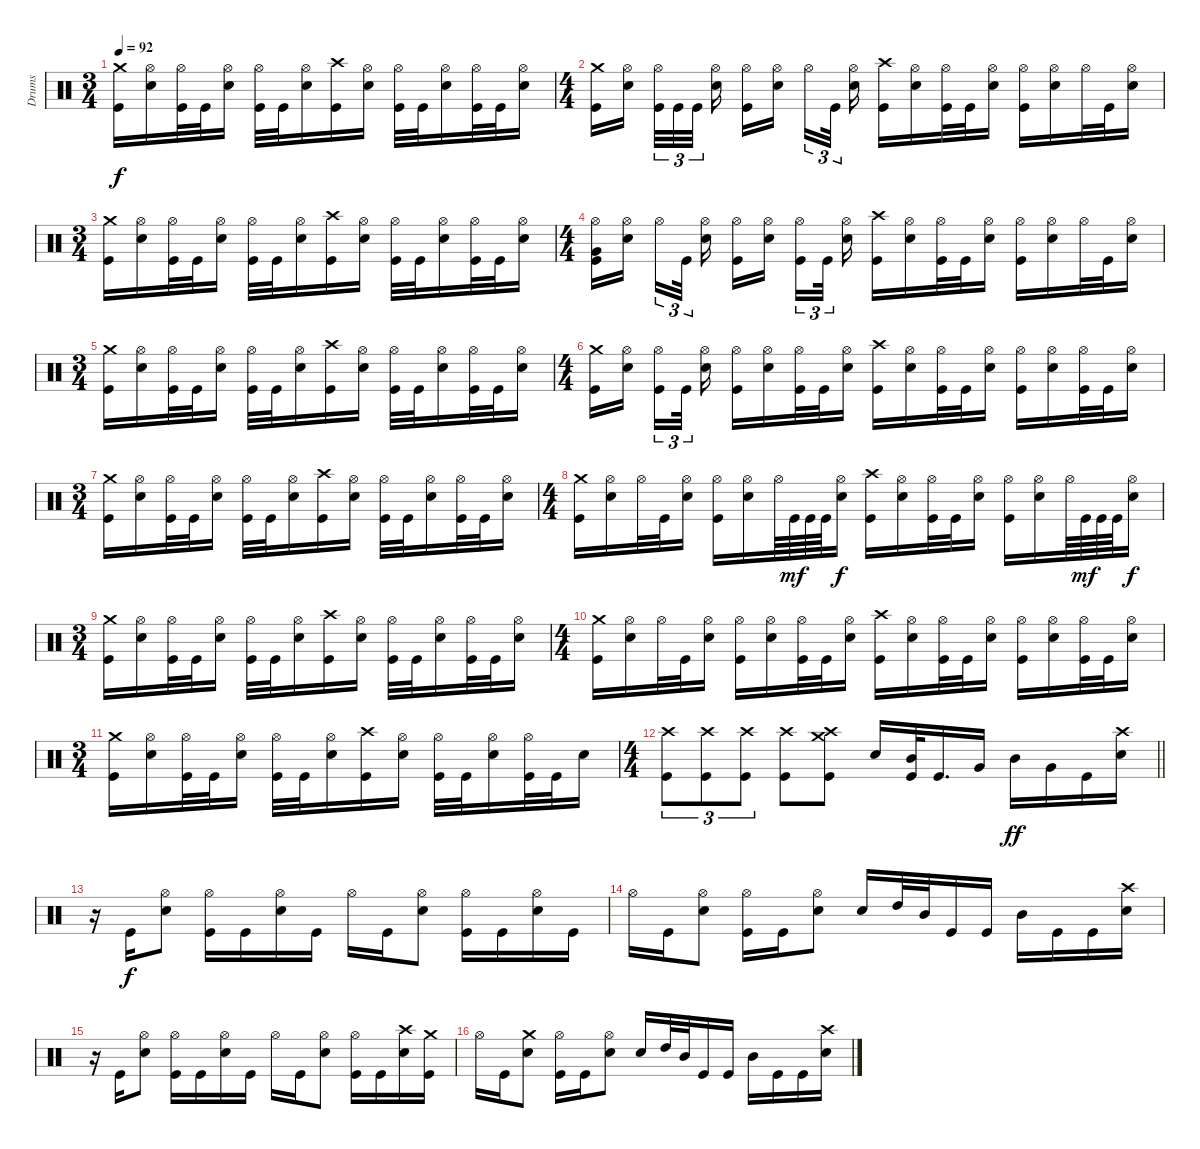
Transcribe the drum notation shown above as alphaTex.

\track ("Drums" "Drums") {instrument percussion}
\staff {score}
\articulation defaults
\ts (3 4)
\beaming (8 2 2 2)
\tempo 92
\clef neutral
\ks c
("Crash medium (hit)" "Kick (hit)").16{dy f} ("Hi-Hat (open)" "Snare (hit) 2").16 ("Hi-Hat (open)" "Kick (hit)").32 "Kick (hit)".32 ("Hi-Hat (open)" "Snare (hit) 2").16 ("Hi-Hat (open)" "Kick (hit)").32 "Kick (hit)".32 ("Hi-Hat (open)" "Snare (hit) 2").16 ("Crash high (hit)" "Kick (hit)").16 ("Hi-Hat (open)" "Snare (hit) 2").16 ("Hi-Hat (open)" "Kick (hit)").32 "Kick (hit)".32 ("Hi-Hat (open)" "Snare (hit) 2").16 ("Hi-Hat (open)" "Kick (hit)").32 "Kick (hit)".32 ("Hi-Hat (open)" "Snare (hit) 2").16 |
\ts (4 4)
\beaming (8 2 2 2 2)
("Crash medium (hit)" "Kick (hit)").16 ("Hi-Hat (open)" "Snare (hit) 2").16 ("Hi-Hat (open)" "Kick (hit)").32{tu (3 2)} "Kick (hit)".32{tu (3 2)} "Kick (hit)".32{tu (3 2)} ("Hi-Hat (open)" "Snare (hit) 2").16 ("Hi-Hat (open)" "Kick (hit)").16 ("Hi-Hat (open)" "Snare (hit) 2").16 "Hi-Hat (open)".16{tu (3 2)} "Kick (hit)".32{tu (3 2)} ("Hi-Hat (open)" "Snare (hit) 2").16 ("Crash high (hit)" "Kick (hit)").16 ("Hi-Hat (open)" "Snare (hit) 2").16 ("Hi-Hat (open)" "Kick (hit)").32 "Kick (hit)".32 ("Hi-Hat (open)" "Snare (hit) 2").16 ("Hi-Hat (open)" "Kick (hit)").16 ("Hi-Hat (open)" "Snare (hit) 2").16 "Hi-Hat (open)".32 "Kick (hit)".32 ("Hi-Hat (open)" "Snare (hit) 2").16 |
\ts (3 4)
\beaming (8 2 2 2)
("Crash medium (hit)" "Kick (hit)").16 ("Hi-Hat (open)" "Snare (hit) 2").16 ("Hi-Hat (open)" "Kick (hit)").32 "Kick (hit)".32 ("Hi-Hat (open)" "Snare (hit) 2").16 ("Hi-Hat (open)" "Kick (hit)").32 "Kick (hit)".32 ("Hi-Hat (open)" "Snare (hit) 2").16 ("Crash high (hit)" "Kick (hit)").16 ("Hi-Hat (open)" "Snare (hit) 2").16 ("Hi-Hat (open)" "Kick (hit)").32 "Kick (hit)".32 ("Hi-Hat (open)" "Snare (hit) 2").16 ("Hi-Hat (open)" "Kick (hit)").32 "Kick (hit)".32 ("Hi-Hat (open)" "Snare (hit) 2").16 |
\ts (4 4)
\beaming (8 2 2 2 2)
("Hi-Hat (open)" "Very Low Tom (hit)" "Kick (hit)").16 ("Hi-Hat (open)" "Snare (hit) 2").16 "Hi-Hat (open)".16{tu (3 2)} "Kick (hit)".32{tu (3 2)} ("Hi-Hat (open)" "Snare (hit) 2").16 ("Hi-Hat (open)" "Kick (hit)").16 ("Hi-Hat (open)" "Snare (hit) 2").16 ("Hi-Hat (open)" "Kick (hit)").16{tu (3 2)} "Kick (hit)".32{tu (3 2)} ("Hi-Hat (open)" "Snare (hit) 2").16 ("Crash high (hit)" "Kick (hit)").16 ("Hi-Hat (open)" "Snare (hit) 2").16 ("Hi-Hat (open)" "Kick (hit)").32 "Kick (hit)".32 ("Hi-Hat (open)" "Snare (hit) 2").16 ("Hi-Hat (open)" "Kick (hit)").16 ("Hi-Hat (open)" "Snare (hit) 2").16 "Hi-Hat (open)".32 "Kick (hit)".32 ("Hi-Hat (open)" "Snare (hit) 2").16 |
\ts (3 4)
\beaming (8 2 2 2)
("Crash medium (hit)" "Kick (hit)").16 ("Hi-Hat (open)" "Snare (hit) 2").16 ("Hi-Hat (open)" "Kick (hit)").32 "Kick (hit)".32 ("Hi-Hat (open)" "Snare (hit) 2").16 ("Hi-Hat (open)" "Kick (hit)").32 "Kick (hit)".32 ("Hi-Hat (open)" "Snare (hit) 2").16 ("Crash high (hit)" "Kick (hit)").16 ("Hi-Hat (open)" "Snare (hit) 2").16 ("Hi-Hat (open)" "Kick (hit)").32 "Kick (hit)".32 ("Hi-Hat (open)" "Snare (hit) 2").16 ("Hi-Hat (open)" "Kick (hit)").32 "Kick (hit)".32 ("Hi-Hat (open)" "Snare (hit) 2").16 |
\ts (4 4)
\beaming (8 2 2 2 2)
("Crash medium (hit)" "Kick (hit)").16 ("Hi-Hat (open)" "Snare (hit) 2").16 ("Hi-Hat (open)" "Kick (hit)").16{tu (3 2)} "Kick (hit)".32{tu (3 2)} ("Hi-Hat (open)" "Snare (hit) 2").16 ("Hi-Hat (open)" "Kick (hit)").16 ("Hi-Hat (open)" "Snare (hit) 2").16 ("Hi-Hat (open)" "Kick (hit)").32 "Kick (hit)".32 ("Hi-Hat (open)" "Snare (hit) 2").16 ("Crash high (hit)" "Kick (hit)").16 ("Hi-Hat (open)" "Snare (hit) 2").16 ("Hi-Hat (open)" "Kick (hit)").32 "Kick (hit)".32 ("Hi-Hat (open)" "Snare (hit) 2").16 ("Hi-Hat (open)" "Kick (hit)").16 ("Hi-Hat (open)" "Snare (hit) 2").16 ("Hi-Hat (open)" "Kick (hit)").32 "Kick (hit)".32 ("Hi-Hat (open)" "Snare (hit) 2").16 |
\ts (3 4)
\beaming (8 2 2 2)
("Crash medium (hit)" "Kick (hit)").16 ("Hi-Hat (open)" "Snare (hit) 2").16 ("Hi-Hat (open)" "Kick (hit)").32 "Kick (hit)".32 ("Hi-Hat (open)" "Snare (hit) 2").16 ("Hi-Hat (open)" "Kick (hit)").32 "Kick (hit)".32 ("Hi-Hat (open)" "Snare (hit) 2").16 ("Crash high (hit)" "Kick (hit)").16 ("Hi-Hat (open)" "Snare (hit) 2").16 ("Hi-Hat (open)" "Kick (hit)").32 "Kick (hit)".32 ("Hi-Hat (open)" "Snare (hit) 2").16 ("Hi-Hat (open)" "Kick (hit)").32 "Kick (hit)".32 ("Hi-Hat (open)" "Snare (hit) 2").16 |
\ts (4 4)
\beaming (8 2 2 2 2)
("Crash medium (hit)" "Kick (hit)").16 ("Hi-Hat (open)" "Snare (hit) 2").16 "Hi-Hat (open)".32 "Kick (hit)".32 ("Hi-Hat (open)" "Snare (hit) 2").16 ("Hi-Hat (open)" "Kick (hit)").16 ("Hi-Hat (open)" "Snare (hit) 2").16 "Hi-Hat (open)".64 "Kick (hit)".64{dy mf} "Kick (hit)".64 "Kick (hit)".64 ("Hi-Hat (open)" "Snare (hit) 2").16{dy f} ("Crash high (hit)" "Kick (hit)").16 ("Hi-Hat (open)" "Snare (hit) 2").16 ("Hi-Hat (open)" "Kick (hit)").32 "Kick (hit)".32 ("Hi-Hat (open)" "Snare (hit) 2").16 ("Hi-Hat (open)" "Kick (hit)").16 ("Hi-Hat (open)" "Snare (hit) 2").16 "Hi-Hat (open)".64 "Kick (hit)".64{dy mf} "Kick (hit)".64 "Kick (hit)".64 ("Hi-Hat (open)" "Snare (hit) 2").16{dy f} |
\ts (3 4)
\beaming (8 2 2 2 2)
("Crash medium (hit)" "Kick (hit)").16 ("Hi-Hat (open)" "Snare (hit) 2").16 ("Hi-Hat (open)" "Kick (hit)").32 "Kick (hit)".32 ("Hi-Hat (open)" "Snare (hit) 2").16 ("Hi-Hat (open)" "Kick (hit)").32 "Kick (hit)".32 ("Hi-Hat (open)" "Snare (hit) 2").16 ("Crash high (hit)" "Kick (hit)").16 ("Hi-Hat (open)" "Snare (hit) 2").16 ("Hi-Hat (open)" "Kick (hit)").32 "Kick (hit)".32 ("Hi-Hat (open)" "Snare (hit) 2").16 ("Hi-Hat (open)" "Kick (hit)").32 "Kick (hit)".32 ("Hi-Hat (open)" "Snare (hit) 2").16 |
\ts (4 4)
\beaming (8 2 2 2 2)
("Crash medium (hit)" "Kick (hit)").16 ("Hi-Hat (open)" "Snare (hit) 2").16 "Hi-Hat (open)".32 "Kick (hit)".32 ("Hi-Hat (open)" "Snare (hit) 2").16 ("Hi-Hat (open)" "Kick (hit)").16 ("Hi-Hat (open)" "Snare (hit) 2").16 ("Hi-Hat (open)" "Kick (hit)").32 "Kick (hit)".32 ("Hi-Hat (open)" "Snare (hit) 2").16 ("Crash high (hit)" "Kick (hit)").16 ("Hi-Hat (open)" "Snare (hit) 2").16 ("Hi-Hat (open)" "Kick (hit)").32 "Kick (hit)".32 ("Hi-Hat (open)" "Snare (hit) 2").16 ("Hi-Hat (open)" "Kick (hit)").16 ("Hi-Hat (open)" "Snare (hit) 2").16 ("Hi-Hat (open)" "Kick (hit)").32 "Kick (hit)".32 ("Hi-Hat (open)" "Snare (hit) 2").16 |
\ts (3 4)
\beaming (8 2 2 2 2)
("Crash medium (hit)" "Kick (hit)").16 ("Hi-Hat (open)" "Snare (hit) 2").16 ("Hi-Hat (open)" "Kick (hit)").32 "Kick (hit)".32 ("Hi-Hat (open)" "Snare (hit) 2").16 ("Hi-Hat (open)" "Kick (hit)").32 "Kick (hit)".32 ("Hi-Hat (open)" "Snare (hit) 2").16 ("Crash high (hit)" "Kick (hit)").16 ("Hi-Hat (open)" "Snare (hit) 2").16 ("Hi-Hat (open)" "Kick (hit)").32 "Kick (hit)".32 ("Hi-Hat (open)" "Snare (hit) 2").16 ("Hi-Hat (open)" "Kick (hit)").32 "Kick (hit)".32 "Snare (hit) 2".16 |
\ts (4 4)
\beaming (8 2 2 2 2)
\barLineRight lightlight
("Crash high (hit)" "Kick (hit)").8{tu (3 2)} ("Crash high (hit)" "Kick (hit)").8{tu (3 2)} ("Crash high (hit)" "Kick (hit)").8{tu (3 2)} ("Crash high (hit)" "Kick (hit)").8 ("Crash high (hit)" "Crash medium (hit)" "Kick (hit)").8 "Snare (hit) 2".16 ("Mid Tom (hit)" "Kick (hit)").32 "Kick (hit)".16{d} "Very Low Tom (hit)".16 "Mid Tom (hit)".16{dy ff} "Very Low Tom (hit)".16 "Kick (hit)".16 ("Crash high (hit)" "Snare (hit) 2").16 |
r.16 "Kick (hit)".16{dy f} ("Hi-Hat (open)" "Snare (hit) 2").8 ("Hi-Hat (open)" "Kick (hit)").16 "Kick (hit)".16 ("Hi-Hat (open)" "Snare (hit) 2").16 "Kick (hit)".16 "Hi-Hat (open)".16 "Kick (hit)".16 ("Hi-Hat (open)" "Snare (hit) 2").8 ("Hi-Hat (open)" "Kick (hit)").16 "Kick (hit)".16 ("Hi-Hat (open)" "Snare (hit) 2").16 "Kick (hit)".16 |
"Hi-Hat (open)".16 "Kick (hit)".16 ("Hi-Hat (open)" "Snare (hit) 2").8 ("Hi-Hat (open)" "Kick (hit)").16 "Kick (hit)".16 ("Hi-Hat (open)" "Snare (hit) 2").8 "Snare (hit) 2".16 "High Tom (hit)".32 "Mid Tom (hit)".32 "Kick (hit)".16 "Kick (hit)".16 "Mid Tom (hit)".16 "Kick (hit)".16 "Kick (hit)".16 ("Crash high (hit)" "Snare (hit) 2").16 |
r.16 "Kick (hit)".16 ("Hi-Hat (open)" "Snare (hit) 2").8 ("Hi-Hat (open)" "Kick (hit)").16 "Kick (hit)".16 ("Hi-Hat (open)" "Snare (hit) 2").16 "Kick (hit)".16 "Hi-Hat (open)".16 "Kick (hit)".16 ("Hi-Hat (open)" "Snare (hit) 2").8 ("Hi-Hat (open)" "Kick (hit)").16 "Kick (hit)".16 ("Crash high (hit)" "Snare (hit) 2").16 ("Crash medium (hit)" "Kick (hit)").16 |
"Hi-Hat (open)".16 "Kick (hit)".16 ("Crash medium (hit)" "Snare (hit) 2").8 ("Hi-Hat (open)" "Kick (hit)").16 "Kick (hit)".16 ("Hi-Hat (open)" "Snare (hit) 2").8 "Snare (hit) 2".16 "High Tom (hit)".32 "Mid Tom (hit)".32 "Kick (hit)".16 "Kick (hit)".16 "Mid Tom (hit)".16 "Kick (hit)".16 "Kick (hit)".16 ("Crash high (hit)" "Snare (hit) 2").16
